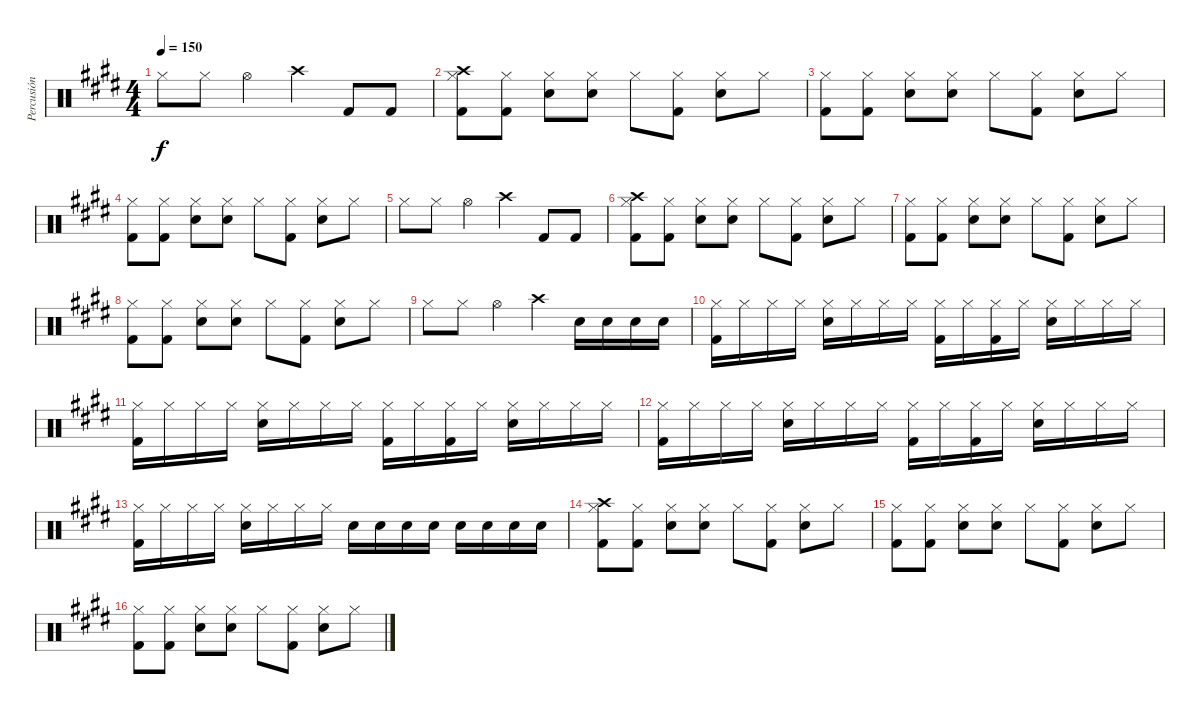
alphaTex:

\track ("Percusión" "Percusión") {instrument percussion}
\staff {score}
\articulation defaults
\ts (4 4)
\tempo 150
\clef neutral
\ks e "Hi-Hat (closed)".8{dy f} "Hi-Hat (closed)".8 "Hi-Hat (open)".4 "Crash high (hit)".4 "Kick (hit) 2".8 "Kick (hit) 2".8
|
("Kick (hit) 2" "Hi-Hat (closed)" "Crash high (hit)").8 ("Kick (hit) 2" "Hi-Hat (closed)").8 ("Snare (hit) 2" "Hi-Hat (closed)").8 ("Snare (hit) 2" "Hi-Hat (closed)").8 "Hi-Hat (closed)".8 ("Kick (hit) 2" "Hi-Hat (closed)").8 ("Snare (hit) 2" "Hi-Hat (closed)").8 "Hi-Hat (closed)".8 |
("Kick (hit) 2" "Hi-Hat (closed)").8 ("Kick (hit) 2" "Hi-Hat (closed)").8 ("Snare (hit) 2" "Hi-Hat (closed)").8 ("Snare (hit) 2" "Hi-Hat (closed)").8 "Hi-Hat (closed)".8 ("Kick (hit) 2" "Hi-Hat (closed)").8 ("Snare (hit) 2" "Hi-Hat (closed)").8 "Hi-Hat (closed)".8 |
("Kick (hit) 2" "Hi-Hat (closed)").8 ("Kick (hit) 2" "Hi-Hat (closed)").8 ("Snare (hit) 2" "Hi-Hat (closed)").8 ("Snare (hit) 2" "Hi-Hat (closed)").8 "Hi-Hat (closed)".8 ("Kick (hit) 2" "Hi-Hat (closed)").8 ("Snare (hit) 2" "Hi-Hat (closed)").8 "Hi-Hat (closed)".8 |
"Hi-Hat (closed)".8 "Hi-Hat (closed)".8 "Hi-Hat (open)".4 "Crash high (hit)".4 "Kick (hit) 2".8 "Kick (hit) 2".8 |
("Kick (hit) 2" "Hi-Hat (closed)" "Crash high (hit)").8 ("Kick (hit) 2" "Hi-Hat (closed)").8 ("Snare (hit) 2" "Hi-Hat (closed)").8 ("Snare (hit) 2" "Hi-Hat (closed)").8 "Hi-Hat (closed)".8 ("Kick (hit) 2" "Hi-Hat (closed)").8 ("Snare (hit) 2" "Hi-Hat (closed)").8 "Hi-Hat (closed)".8 |
("Kick (hit) 2" "Hi-Hat (closed)").8 ("Kick (hit) 2" "Hi-Hat (closed)").8 ("Snare (hit) 2" "Hi-Hat (closed)").8 ("Snare (hit) 2" "Hi-Hat (closed)").8 "Hi-Hat (closed)".8 ("Kick (hit) 2" "Hi-Hat (closed)").8 ("Snare (hit) 2" "Hi-Hat (closed)").8 "Hi-Hat (closed)".8 |
("Kick (hit) 2" "Hi-Hat (closed)").8 ("Kick (hit) 2" "Hi-Hat (closed)").8 ("Snare (hit) 2" "Hi-Hat (closed)").8 ("Snare (hit) 2" "Hi-Hat (closed)").8 "Hi-Hat (closed)".8 ("Kick (hit) 2" "Hi-Hat (closed)").8 ("Snare (hit) 2" "Hi-Hat (closed)").8 "Hi-Hat (closed)".8 |
"Hi-Hat (closed)".8 "Hi-Hat (closed)".8 "Hi-Hat (open)".4 "Crash high (hit)".4 "Electric Snare (hit)".16 "Electric Snare (hit)".16 "Electric Snare (hit)".16 "Electric Snare (hit)".16 |
("Hi-Hat (closed)" "Kick (hit) 2").16 "Hi-Hat (closed)".16 "Hi-Hat (closed)".16 "Hi-Hat (closed)".16 ("Hi-Hat (closed)" "Electric Snare (hit)").16 "Hi-Hat (closed)".16 "Hi-Hat (closed)".16 "Hi-Hat (closed)".16 ("Hi-Hat (closed)" "Kick (hit) 2").16 "Hi-Hat (closed)".16 ("Hi-Hat (closed)" "Kick (hit) 2").16 "Hi-Hat (closed)".16 ("Hi-Hat (closed)" "Electric Snare (hit)").16 "Hi-Hat (closed)".16 "Hi-Hat (closed)".16 "Hi-Hat (closed)".16 |
("Hi-Hat (closed)" "Kick (hit) 2").16 "Hi-Hat (closed)".16 "Hi-Hat (closed)".16 "Hi-Hat (closed)".16 ("Hi-Hat (closed)" "Electric Snare (hit)").16 "Hi-Hat (closed)".16 "Hi-Hat (closed)".16 "Hi-Hat (closed)".16 ("Hi-Hat (closed)" "Kick (hit) 2").16 "Hi-Hat (closed)".16 ("Hi-Hat (closed)" "Kick (hit) 2").16 "Hi-Hat (closed)".16 ("Hi-Hat (closed)" "Electric Snare (hit)").16 "Hi-Hat (closed)".16 "Hi-Hat (closed)".16 "Hi-Hat (closed)".16 |
("Hi-Hat (closed)" "Kick (hit) 2").16 "Hi-Hat (closed)".16 "Hi-Hat (closed)".16 "Hi-Hat (closed)".16 ("Hi-Hat (closed)" "Electric Snare (hit)").16 "Hi-Hat (closed)".16 "Hi-Hat (closed)".16 "Hi-Hat (closed)".16 ("Hi-Hat (closed)" "Kick (hit) 2").16 "Hi-Hat (closed)".16 ("Hi-Hat (closed)" "Kick (hit) 2").16 "Hi-Hat (closed)".16 ("Hi-Hat (closed)" "Electric Snare (hit)").16 "Hi-Hat (closed)".16 "Hi-Hat (closed)".16 "Hi-Hat (closed)".16 |
("Hi-Hat (closed)" "Kick (hit) 2").16 "Hi-Hat (closed)".16 "Hi-Hat (closed)".16 "Hi-Hat (closed)".16 ("Hi-Hat (closed)" "Electric Snare (hit)").16 "Hi-Hat (closed)".16 "Hi-Hat (closed)".16 "Hi-Hat (closed)".16 "Electric Snare (hit)".16 "Electric Snare (hit)".16 "Electric Snare (hit)".16 "Electric Snare (hit)".16 "Electric Snare (hit)".16 "Electric Snare (hit)".16 "Electric Snare (hit)".16 "Electric Snare (hit)".16 |
("Kick (hit) 2" "Hi-Hat (closed)" "Crash high (hit)").8 ("Kick (hit) 2" "Hi-Hat (closed)").8 ("Snare (hit) 2" "Hi-Hat (closed)").8 ("Snare (hit) 2" "Hi-Hat (closed)").8 "Hi-Hat (closed)".8 ("Kick (hit) 2" "Hi-Hat (closed)").8 ("Snare (hit) 2" "Hi-Hat (closed)").8 "Hi-Hat (closed)".8 |
("Kick (hit) 2" "Hi-Hat (closed)").8 ("Kick (hit) 2" "Hi-Hat (closed)").8 ("Snare (hit) 2" "Hi-Hat (closed)").8 ("Snare (hit) 2" "Hi-Hat (closed)").8 "Hi-Hat (closed)".8 ("Kick (hit) 2" "Hi-Hat (closed)").8 ("Snare (hit) 2" "Hi-Hat (closed)").8 "Hi-Hat (closed)".8 |
("Kick (hit) 2" "Hi-Hat (closed)").8 ("Kick (hit) 2" "Hi-Hat (closed)").8 ("Snare (hit) 2" "Hi-Hat (closed)").8 ("Snare (hit) 2" "Hi-Hat (closed)").8 "Hi-Hat (closed)".8 ("Kick (hit) 2" "Hi-Hat (closed)").8 ("Snare (hit) 2" "Hi-Hat (closed)").8 "Hi-Hat (closed)".8
